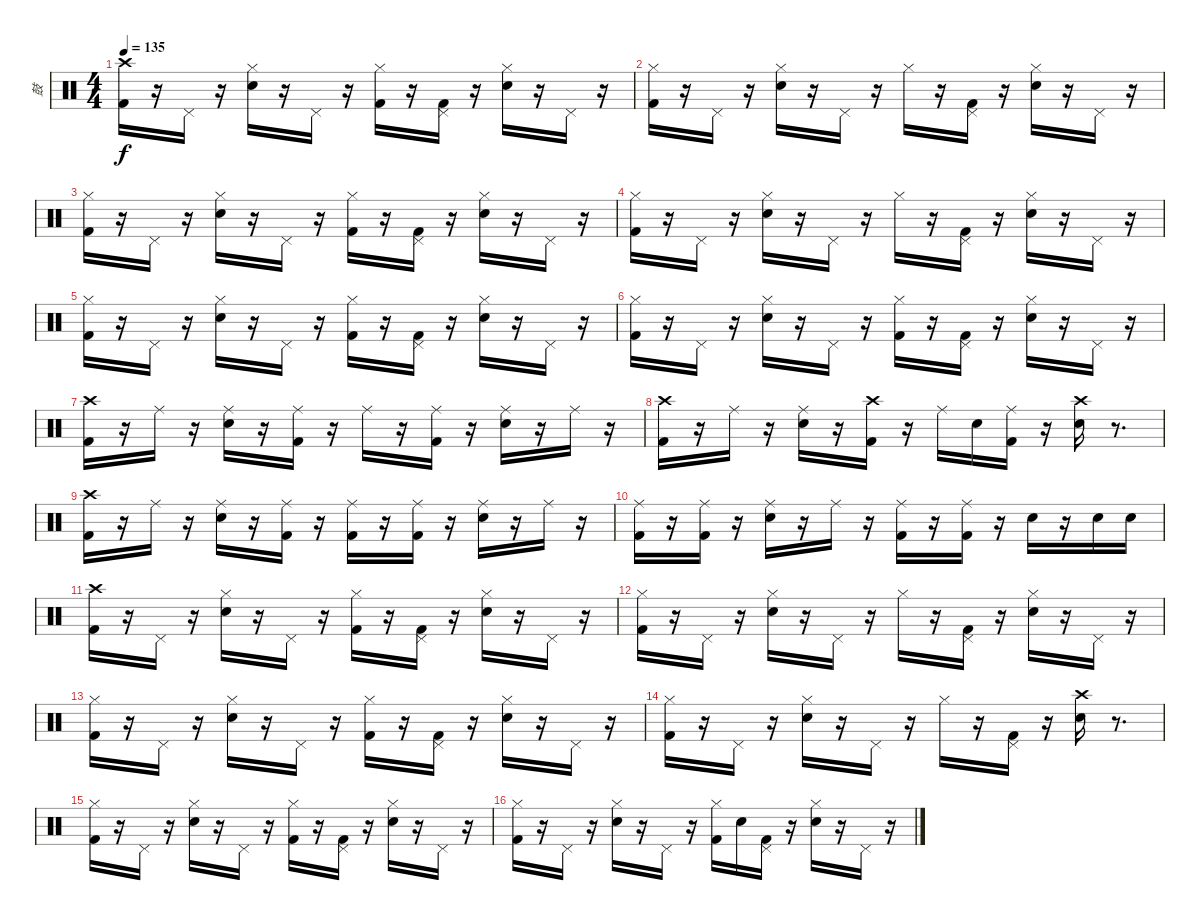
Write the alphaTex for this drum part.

\track ("鼓" "鼓") {instrument percussion}
\staff {score}
\articulation defaults
\ts (4 4)
\tempo 135
\clef neutral
\ks c
("Crash high (hit)" "Kick (hit) 2").16{dy f} r.16 "Pedal Hi-Hat (hit)".16 r.16 ("Hi-Hat (closed)" "Electric Snare (hit)").16 r.16 "Pedal Hi-Hat (hit)".16 r.16 ("Hi-Hat (closed)" "Kick (hit) 2").16 r.16 ("Pedal Hi-Hat (hit)" "Kick (hit) 2").16 r.16 ("Hi-Hat (closed)" "Electric Snare (hit)").16 r.16 "Pedal Hi-Hat (hit)".16 r.16 |
("Hi-Hat (closed)" "Kick (hit) 2").16 r.16 "Pedal Hi-Hat (hit)".16 r.16 ("Electric Snare (hit)" "Hi-Hat (closed)").16 r.16 "Pedal Hi-Hat (hit)".16 r.16 "Hi-Hat (closed)".16 r.16 ("Pedal Hi-Hat (hit)" "Kick (hit) 2").16 r.16 ("Hi-Hat (closed)" "Electric Snare (hit)").16 r.16 "Pedal Hi-Hat (hit)".16 r.16 |
("Hi-Hat (closed)" "Kick (hit) 2").16 r.16 "Pedal Hi-Hat (hit)".16 r.16 ("Hi-Hat (closed)" "Electric Snare (hit)").16 r.16 "Pedal Hi-Hat (hit)".16 r.16 ("Kick (hit) 2" "Hi-Hat (closed)").16 r.16 ("Kick (hit) 2" "Pedal Hi-Hat (hit)").16 r.16 ("Electric Snare (hit)" "Hi-Hat (closed)").16 r.16 "Pedal Hi-Hat (hit)".16 r.16 |
("Hi-Hat (closed)" "Kick (hit) 2").16 r.16 "Pedal Hi-Hat (hit)".16 r.16 ("Hi-Hat (closed)" "Electric Snare (hit)").16 r.16 "Pedal Hi-Hat (hit)".16 r.16 "Hi-Hat (closed)".16 r.16 ("Pedal Hi-Hat (hit)" "Kick (hit) 2").16 r.16 ("Hi-Hat (closed)" "Electric Snare (hit)").16 r.16 "Pedal Hi-Hat (hit)".16 r.16 |
("Hi-Hat (closed)" "Kick (hit) 2").16 r.16 "Pedal Hi-Hat (hit)".16 r.16 ("Electric Snare (hit)" "Hi-Hat (closed)").16 r.16 "Pedal Hi-Hat (hit)".16 r.16 ("Hi-Hat (closed)" "Kick (hit) 2").16 r.16 ("Pedal Hi-Hat (hit)" "Kick (hit) 2").16 r.16 ("Hi-Hat (closed)" "Electric Snare (hit)").16 r.16 "Pedal Hi-Hat (hit)".16 r.16 |
("Kick (hit) 2" "Hi-Hat (closed)").16 r.16 "Pedal Hi-Hat (hit)".16 r.16 ("Electric Snare (hit)" "Hi-Hat (closed)").16 r.16 "Pedal Hi-Hat (hit)".16 r.16 ("Kick (hit) 2" "Hi-Hat (closed)").16 r.16 ("Kick (hit) 2" "Pedal Hi-Hat (hit)").16 r.16 ("Electric Snare (hit)" "Hi-Hat (closed)").16 r.16 "Pedal Hi-Hat (hit)".16 r.16 |
("Crash high (hit)" "Kick (hit) 2").16 r.16 "Ride (middle)".16 r.16 ("Ride (middle)" "Electric Snare (hit)").16 r.16 ("Ride (middle)" "Kick (hit) 2").16 r.16 "Ride (middle)".16 r.16 ("Ride (middle)" "Kick (hit) 2").16 r.16 ("Ride (middle)" "Electric Snare (hit)").16 r.16 "Ride (middle)".16 r.16 |
("Crash high (hit)" "Kick (hit) 2").16 r.16 "Ride (middle)".16 r.16 ("Electric Snare (hit)" "Ride (middle)").16 r.16 ("Kick (hit) 2" "Crash high (hit)").16 r.16 "Ride (middle)".16 "Electric Snare (hit)".16 ("Ride (middle)" "Kick (hit) 2").16 r.16 ("Crash high (hit)" "Electric Snare (hit)").16 r.8{d} |
("Crash high (hit)" "Kick (hit) 2").16 r.16 "Ride (middle)".16 r.16 ("Ride (middle)" "Electric Snare (hit)").16 r.16 ("Ride (middle)" "Kick (hit) 2").16 r.16 ("Ride (middle)" "Kick (hit) 2").16 r.16 ("Ride (middle)" "Kick (hit) 2").16 r.16 ("Ride (middle)" "Electric Snare (hit)").16 r.16 "Ride (middle)".16 r.16 |
("Ride (middle)" "Kick (hit) 2").16 r.16 ("Ride (middle)" "Kick (hit) 2").16 r.16 ("Ride (middle)" "Electric Snare (hit)").16 r.16 "Ride (middle)".16 r.16 ("Ride (middle)" "Kick (hit) 2").16 r.16 ("Ride (middle)" "Kick (hit) 2").16 r.16 "Electric Snare (hit)".16 r.16 "Electric Snare (hit)".16 "Electric Snare (hit)".16 |
("Crash high (hit)" "Kick (hit) 2").16 r.16 "Pedal Hi-Hat (hit)".16 r.16 ("Hi-Hat (closed)" "Electric Snare (hit)").16 r.16 "Pedal Hi-Hat (hit)".16 r.16 ("Hi-Hat (closed)" "Kick (hit) 2").16 r.16 ("Pedal Hi-Hat (hit)" "Kick (hit) 2").16 r.16 ("Hi-Hat (closed)" "Electric Snare (hit)").16 r.16 "Pedal Hi-Hat (hit)".16 r.16 |
("Hi-Hat (closed)" "Kick (hit) 2").16 r.16 "Pedal Hi-Hat (hit)".16 r.16 ("Electric Snare (hit)" "Hi-Hat (closed)").16 r.16 "Pedal Hi-Hat (hit)".16 r.16 "Hi-Hat (closed)".16 r.16 ("Kick (hit) 2" "Pedal Hi-Hat (hit)").16 r.16 ("Electric Snare (hit)" "Hi-Hat (closed)").16 r.16 "Pedal Hi-Hat (hit)".16 r.16 |
("Hi-Hat (closed)" "Kick (hit) 2").16 r.16 "Pedal Hi-Hat (hit)".16 r.16 ("Electric Snare (hit)" "Hi-Hat (closed)").16 r.16 "Pedal Hi-Hat (hit)".16 r.16 ("Kick (hit) 2" "Hi-Hat (closed)").16 r.16 ("Kick (hit) 2" "Pedal Hi-Hat (hit)").16 r.16 ("Electric Snare (hit)" "Hi-Hat (closed)").16 r.16 "Pedal Hi-Hat (hit)".16 r.16 |
("Kick (hit) 2" "Hi-Hat (closed)").16 r.16 "Pedal Hi-Hat (hit)".16 r.16 ("Hi-Hat (closed)" "Electric Snare (hit)").16 r.16 "Pedal Hi-Hat (hit)".16 r.16 "Hi-Hat (closed)".16 r.16 ("Pedal Hi-Hat (hit)" "Kick (hit) 2").16 r.16 ("Crash high (hit)" "Electric Snare (hit)").16 r.8{d} |
("Hi-Hat (closed)" "Kick (hit) 2").16 r.16 "Pedal Hi-Hat (hit)".16 r.16 ("Hi-Hat (closed)" "Electric Snare (hit)").16 r.16 "Pedal Hi-Hat (hit)".16 r.16 ("Hi-Hat (closed)" "Kick (hit) 2").16 r.16 ("Pedal Hi-Hat (hit)" "Kick (hit) 2").16 r.16 ("Hi-Hat (closed)" "Electric Snare (hit)").16 r.16 "Pedal Hi-Hat (hit)".16 r.16 |
("Hi-Hat (closed)" "Kick (hit) 2").16 r.16 "Pedal Hi-Hat (hit)".16 r.16 ("Electric Snare (hit)" "Hi-Hat (closed)").16 r.16 "Pedal Hi-Hat (hit)".16 r.16 ("Kick (hit) 2" "Hi-Hat (closed)").16 "Electric Snare (hit)".16 ("Kick (hit) 2" "Pedal Hi-Hat (hit)").16 r.16 ("Electric Snare (hit)" "Hi-Hat (closed)").16 r.16 "Pedal Hi-Hat (hit)".16 r.16
